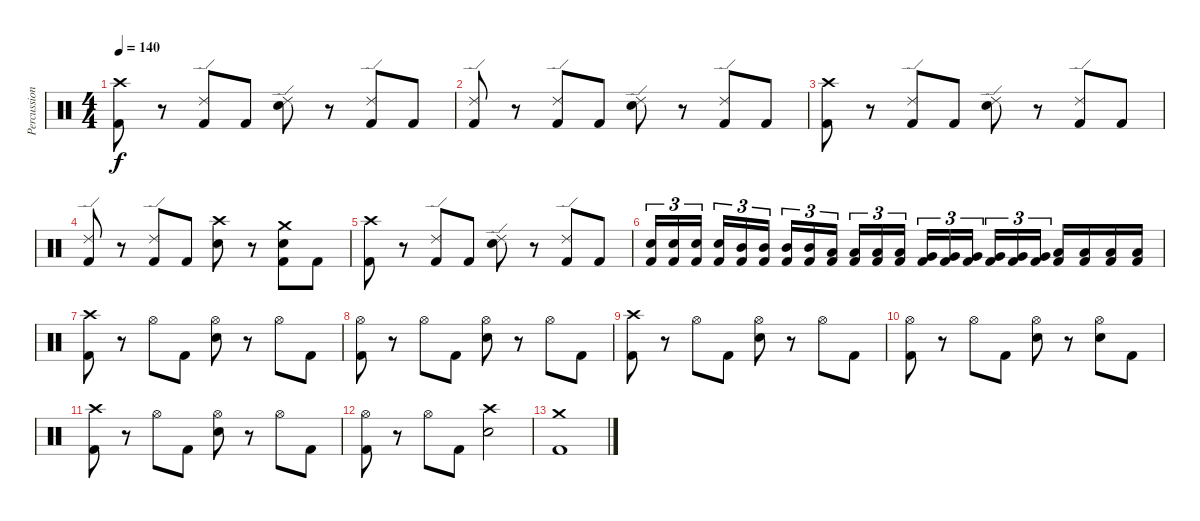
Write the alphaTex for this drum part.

\track ("Percussion" "Percussion") {instrument percussion}
\staff {score}
\articulation defaults
\ts (4 4)
\tempo 140
\clef neutral
\ks c
("Crash high (hit)" "Kick (hit) 2").8{dy f} r.8 ("Ride (edge) 2" "Kick (hit) 2").8 "Kick (hit) 2".8 ("Ride (edge) 2" "Snare (hit) 2").8 r.8 ("Ride (edge) 2" "Kick (hit) 2").8 "Kick (hit) 2".8 |
("Ride (edge) 2" "Kick (hit) 2").8 r.8 ("Ride (edge) 2" "Kick (hit) 2").8 "Kick (hit) 2".8 ("Ride (edge) 2" "Snare (hit) 2").8 r.8 ("Ride (edge) 2" "Kick (hit) 2").8 "Kick (hit) 2".8 |
("Crash high (hit)" "Kick (hit) 2").8 r.8 ("Ride (edge) 2" "Kick (hit) 2").8 "Kick (hit) 2".8 ("Ride (edge) 2" "Snare (hit) 2").8 r.8 ("Ride (edge) 2" "Kick (hit) 2").8 "Kick (hit) 2".8 |
("Ride (edge) 2" "Kick (hit) 2").8 r.8 ("Ride (edge) 2" "Kick (hit) 2").8 "Kick (hit) 2".8 ("Crash high (hit)" "Snare (hit) 2").8 r.8 ("Crash medium (hit)" "Snare (hit) 2" "Kick (hit) 2").8 "Kick (hit) 2".8 |
("Crash high (hit)" "Kick (hit) 2").8 r.8 ("Ride (edge) 2" "Kick (hit) 2").8 "Kick (hit) 2".8 ("Ride (edge) 2" "Snare (hit) 2").8 r.8 ("Ride (edge) 2" "Kick (hit) 2").8 "Kick (hit) 2".8 |
("Snare (hit) 2" "Kick (hit) 2").16{tu (3 2)} ("Snare (hit) 2" "Kick (hit) 2").16{tu (3 2)} ("Snare (hit) 2" "Kick (hit) 2").16{tu (3 2)} ("Snare (hit) 2" "Kick (hit) 2").16{tu (3 2)} ("Mid Tom (hit)" "Kick (hit) 2").16{tu (3 2)} ("Mid Tom (hit)" "Kick (hit) 2").16{tu (3 2)} ("Mid Tom (hit)" "Kick (hit) 2").16{tu (3 2)} ("Mid Tom (hit)" "Kick (hit) 2").16{tu (3 2)} ("Low Tom (hit)" "Kick (hit) 2").16{tu (3 2)} ("Low Tom (hit)" "Kick (hit) 2").16{tu (3 2)} ("Low Tom (hit)" "Kick (hit) 2").16{tu (3 2)} ("Low Tom (hit)" "Kick (hit) 2").16{tu (3 2)} ("Very Low Tom (hit)" "Kick (hit) 2").16{tu (3 2)} ("Very Low Tom (hit)" "Kick (hit) 2").16{tu (3 2)} ("Very Low Tom (hit)" "Kick (hit) 2").16{tu (3 2)} ("Very Low Tom (hit)" "Kick (hit) 2").16{tu (3 2)} ("Very Low Tom (hit)" "Kick (hit) 2").16{tu (3 2)} ("Very Low Tom (hit)" "Kick (hit) 2").16{tu (3 2)} ("Low Floor Tom (hit)" "Kick (hit) 2").16 ("Low Floor Tom (hit)" "Kick (hit) 2").16 ("Low Floor Tom (hit)" "Kick (hit) 2").16 ("Low Floor Tom (hit)" "Kick (hit) 2").16 |
("Crash high (hit)" "Kick (hit) 2").8 r.8 "Hi-Hat (open)".8 "Kick (hit) 2".8 ("Hi-Hat (open)" "Snare (hit) 2").8 r.8 "Hi-Hat (open)".8 "Kick (hit) 2".8 |
("Hi-Hat (open)" "Kick (hit) 2").8 r.8 "Hi-Hat (open)".8 "Kick (hit) 2".8 ("Hi-Hat (open)" "Snare (hit) 2").8 r.8 "Hi-Hat (open)".8 "Kick (hit) 2".8 |
("Crash high (hit)" "Kick (hit) 2").8{volume 4} r.8 "Hi-Hat (open)".8 "Kick (hit) 2".8 ("Hi-Hat (open)" "Snare (hit) 2").8 r.8 "Hi-Hat (open)".8 "Kick (hit) 2".8 |
("Hi-Hat (open)" "Kick (hit) 2").8 r.8 "Hi-Hat (open)".8 "Kick (hit) 2".8 ("Hi-Hat (open)" "Snare (hit) 2").8 r.8 ("Hi-Hat (open)" "Snare (hit) 2").8 "Kick (hit) 2".8 |
("Crash high (hit)" "Kick (hit) 2").8 r.8 "Hi-Hat (open)".8 "Kick (hit) 2".8 ("Hi-Hat (open)" "Snare (hit) 2").8 r.8 "Hi-Hat (open)".8 "Kick (hit) 2".8 |
("Hi-Hat (open)" "Kick (hit) 2").8 r.8 "Hi-Hat (open)".8 "Kick (hit) 2".8 ("Crash high (hit)" "Snare (hit) 2").2 |
("Crash medium (hit)" "Kick (hit) 2").1
